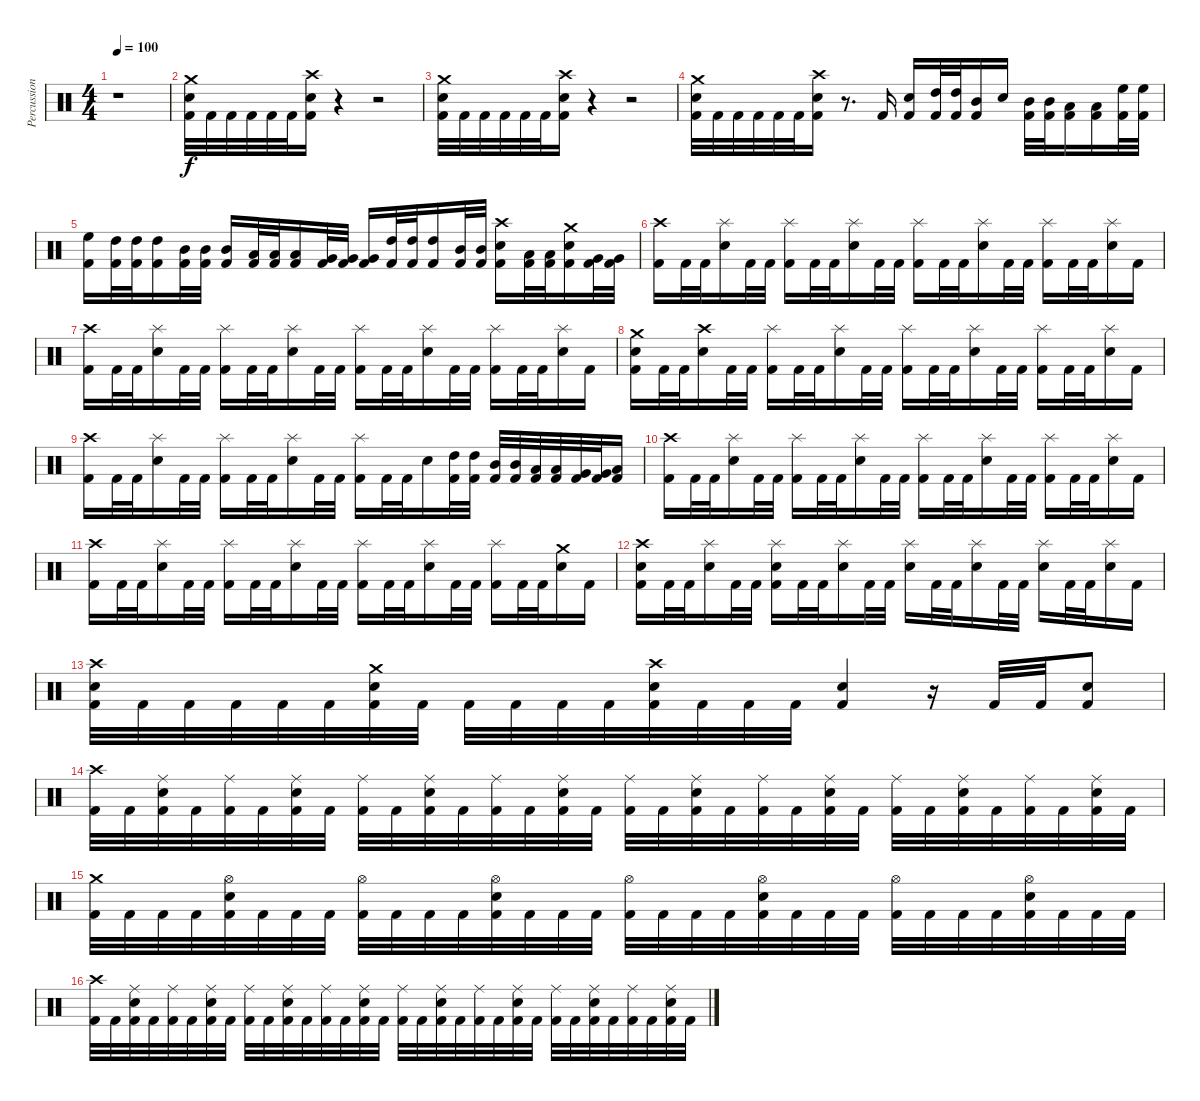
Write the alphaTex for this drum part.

\track ("Percussion" "Percussion") {instrument percussion}
\staff {score}
\articulation defaults
\ts (4 4)
\tempo 100
\clef neutral
\ks c
r.1{dy f} |
("Crash medium (hit)" "Electric Snare (hit)" "Kick (hit) 2").32 "Kick (hit) 2".32 "Kick (hit) 2".32 "Kick (hit) 2".32 "Kick (hit) 2".32 "Kick (hit) 2".32 ("Crash high (hit)" "Electric Snare (hit)" "Kick (hit) 2").16 r.4 r.2 |
("Crash medium (hit)" "Electric Snare (hit)" "Kick (hit) 2").32 "Kick (hit) 2".32 "Kick (hit) 2".32 "Kick (hit) 2".32 "Kick (hit) 2".32 "Kick (hit) 2".32 ("Crash high (hit)" "Electric Snare (hit)" "Kick (hit) 2").16 r.4 r.2 |
("Crash medium (hit)" "Electric Snare (hit)" "Kick (hit) 2").32 "Kick (hit) 2".32 "Kick (hit) 2".32 "Kick (hit) 2".32 "Kick (hit) 2".32 "Kick (hit) 2".32 ("Crash high (hit)" "Electric Snare (hit)" "Kick (hit) 2").16 r.8{d} "Kick (hit) 2".16 ("Electric Snare (hit)" "Kick (hit) 2").16 ("High Tom (hit)" "Kick (hit) 2").32 ("High Tom (hit)" "Kick (hit) 2").32 ("Mid Tom (hit)" "Kick (hit) 2").16 "Electric Snare (hit)".16 ("Mid Tom (hit)" "Kick (hit) 2").32 ("Mid Tom (hit)" "Kick (hit) 2").32 ("Low Tom (hit)" "Kick (hit) 2").16 ("Low Tom (hit)" "Kick (hit) 2").16 ("High Floor Tom (hit)" "Kick (hit) 2").32 ("High Floor Tom (hit)" "Kick (hit) 2").32 |
("High Floor Tom (hit)" "Kick (hit) 2").16 ("High Tom (hit)" "Kick (hit) 2").32 ("High Tom (hit)" "Kick (hit) 2").32 ("High Tom (hit)" "Kick (hit) 2").16 ("Mid Tom (hit)" "Kick (hit) 2").32 ("Mid Tom (hit)" "Kick (hit) 2").32 ("Mid Tom (hit)" "Kick (hit) 2").16 ("Low Tom (hit)" "Kick (hit) 2").32 ("Low Tom (hit)" "Kick (hit) 2").32 ("Low Tom (hit)" "Kick (hit) 2").16 ("Very Low Tom (hit)" "Kick (hit) 2").32 ("Very Low Tom (hit)" "Kick (hit) 2").32 ("Very Low Tom (hit)" "Kick (hit) 2").16 ("High Tom (hit)" "Kick (hit) 2").32 ("High Tom (hit)" "Kick (hit) 2").32 ("High Tom (hit)" "Kick (hit) 2").16 ("Mid Tom (hit)" "Kick (hit) 2").32 ("Mid Tom (hit)" "Kick (hit) 2").32 ("Crash high (hit)" "Electric Snare (hit)" "Kick (hit) 2").16 ("Low Tom (hit)" "Kick (hit) 2").32 ("Low Tom (hit)" "Kick (hit) 2").32 ("Crash medium (hit)" "Electric Snare (hit)" "Kick (hit) 2").16 ("Very Low Tom (hit)" "Kick (hit) 2").32 ("Very Low Tom (hit)" "Kick (hit) 2").32 |
("Crash high (hit)" "Kick (hit) 2").16 "Kick (hit) 2".32 "Kick (hit) 2".32 ("Splash (hit)" "Electric Snare (hit)").16 "Kick (hit) 2".32 "Kick (hit) 2".32 ("Splash (hit)" "Kick (hit) 2").16 "Kick (hit) 2".32 "Kick (hit) 2".32 ("Splash (hit)" "Electric Snare (hit)").16 "Kick (hit) 2".32 "Kick (hit) 2".32 ("Splash (hit)" "Kick (hit) 2").16 "Kick (hit) 2".32 "Kick (hit) 2".32 ("Splash (hit)" "Electric Snare (hit)").16 "Kick (hit) 2".32 "Kick (hit) 2".32 ("Splash (hit)" "Kick (hit) 2").16 "Kick (hit) 2".32 "Kick (hit) 2".32 ("Splash (hit)" "Electric Snare (hit)").16 "Kick (hit) 2".16 |
("Crash high (hit)" "Kick (hit) 2").16 "Kick (hit) 2".32 "Kick (hit) 2".32 ("Splash (hit)" "Electric Snare (hit)").16 "Kick (hit) 2".32 "Kick (hit) 2".32 ("Splash (hit)" "Kick (hit) 2").16 "Kick (hit) 2".32 "Kick (hit) 2".32 ("Splash (hit)" "Electric Snare (hit)").16 "Kick (hit) 2".32 "Kick (hit) 2".32 ("Splash (hit)" "Kick (hit) 2").16 "Kick (hit) 2".32 "Kick (hit) 2".32 ("Splash (hit)" "Electric Snare (hit)").16 "Kick (hit) 2".32 "Kick (hit) 2".32 ("Splash (hit)" "Kick (hit) 2").16 "Kick (hit) 2".32 "Kick (hit) 2".32 ("Splash (hit)" "Electric Snare (hit)").16 "Kick (hit) 2".16 |
("Crash medium (hit)" "Electric Snare (hit)" "Kick (hit) 2").16 "Kick (hit) 2".32 "Kick (hit) 2".32 ("Crash high (hit)" "Electric Snare (hit)").16 "Kick (hit) 2".32 "Kick (hit) 2".32 ("Splash (hit)" "Kick (hit) 2").16 "Kick (hit) 2".32 "Kick (hit) 2".32 ("Splash (hit)" "Electric Snare (hit)").16 "Kick (hit) 2".32 "Kick (hit) 2".32 ("Splash (hit)" "Kick (hit) 2").16 "Kick (hit) 2".32 "Kick (hit) 2".32 ("Splash (hit)" "Electric Snare (hit)").16 "Kick (hit) 2".32 "Kick (hit) 2".32 ("Splash (hit)" "Kick (hit) 2").16 "Kick (hit) 2".32 "Kick (hit) 2".32 ("Splash (hit)" "Electric Snare (hit)").16 "Kick (hit) 2".16 |
("Crash high (hit)" "Kick (hit) 2").16 "Kick (hit) 2".32 "Kick (hit) 2".32 ("Splash (hit)" "Electric Snare (hit)").16 "Kick (hit) 2".32 "Kick (hit) 2".32 ("Splash (hit)" "Kick (hit) 2").16 "Kick (hit) 2".32 "Kick (hit) 2".32 ("Splash (hit)" "Electric Snare (hit)").16 "Kick (hit) 2".32 "Kick (hit) 2".32 ("Splash (hit)" "Kick (hit) 2").16 "Kick (hit) 2".32 "Kick (hit) 2".32 "Electric Snare (hit)".16 ("High Tom (hit)" "Kick (hit) 2").32 ("High Tom (hit)" "Kick (hit) 2").32 ("Mid Tom (hit)" "Kick (hit) 2").32 ("Mid Tom (hit)" "Kick (hit) 2").32 ("Low Tom (hit)" "Kick (hit) 2").32 ("Low Tom (hit)" "Kick (hit) 2").32 ("Very Low Tom (hit)" "Kick (hit) 2").32 ("Very Low Tom (hit)" "Kick (hit) 2").32 ("Low Floor Tom (hit)" "Kick (hit) 2").16 |
("Crash high (hit)" "Kick (hit) 2").16 "Kick (hit) 2".32 "Kick (hit) 2".32 ("Splash (hit)" "Electric Snare (hit)").16 "Kick (hit) 2".32 "Kick (hit) 2".32 ("Splash (hit)" "Kick (hit) 2").16 "Kick (hit) 2".32 "Kick (hit) 2".32 ("Splash (hit)" "Electric Snare (hit)").16 "Kick (hit) 2".32 "Kick (hit) 2".32 ("Splash (hit)" "Kick (hit) 2").16 "Kick (hit) 2".32 "Kick (hit) 2".32 ("Splash (hit)" "Electric Snare (hit)").16 "Kick (hit) 2".32 "Kick (hit) 2".32 ("Splash (hit)" "Kick (hit) 2").16 "Kick (hit) 2".32 "Kick (hit) 2".32 ("Splash (hit)" "Electric Snare (hit)").16 "Kick (hit) 2".16 |
("Crash high (hit)" "Kick (hit) 2").16 "Kick (hit) 2".32 "Kick (hit) 2".32 ("Splash (hit)" "Electric Snare (hit)").16 "Kick (hit) 2".32 "Kick (hit) 2".32 ("Splash (hit)" "Kick (hit) 2").16 "Kick (hit) 2".32 "Kick (hit) 2".32 ("Splash (hit)" "Electric Snare (hit)").16 "Kick (hit) 2".32 "Kick (hit) 2".32 ("Splash (hit)" "Kick (hit) 2").16 "Kick (hit) 2".32 "Kick (hit) 2".32 ("Splash (hit)" "Electric Snare (hit)").16 "Kick (hit) 2".32 "Kick (hit) 2".32 ("Splash (hit)" "Kick (hit) 2").16 "Kick (hit) 2".32 "Kick (hit) 2".32 ("Crash medium (hit)" "Electric Snare (hit)").16 "Kick (hit) 2".16 |
("Crash high (hit)" "Electric Snare (hit)" "Kick (hit) 2").16 "Kick (hit) 2".32 "Kick (hit) 2".32 ("Splash (hit)" "Electric Snare (hit)").16 "Kick (hit) 2".32 "Kick (hit) 2".32 ("Splash (hit)" "Electric Snare (hit)" "Kick (hit) 2").16 "Kick (hit) 2".32 "Kick (hit) 2".32 ("Splash (hit)" "Electric Snare (hit)").16 "Kick (hit) 2".32 "Kick (hit) 2".32 ("Splash (hit)" "Electric Snare (hit)").16 "Kick (hit) 2".32 "Kick (hit) 2".32 ("Splash (hit)" "Electric Snare (hit)").16 "Kick (hit) 2".32 "Kick (hit) 2".32 ("Splash (hit)" "Electric Snare (hit)").16 "Kick (hit) 2".32 "Kick (hit) 2".32 ("Splash (hit)" "Electric Snare (hit)").16 "Kick (hit) 2".16 |
("Crash high (hit)" "Electric Snare (hit)" "Kick (hit) 2").32 "Kick (hit) 2".32 "Kick (hit) 2".32 "Kick (hit) 2".32 "Kick (hit) 2".32 "Kick (hit) 2".32 ("Crash medium (hit)" "Electric Snare (hit)" "Kick (hit) 2").32 "Kick (hit) 2".32 "Kick (hit) 2".32 "Kick (hit) 2".32 "Kick (hit) 2".32 "Kick (hit) 2".32 ("Crash high (hit)" "Electric Snare (hit)" "Kick (hit) 2").32 "Kick (hit) 2".32 "Kick (hit) 2".32 "Kick (hit) 2".32 ("Electric Snare (hit)" "Kick (hit) 2").4 r.16 "Kick (hit) 2".32 "Kick (hit) 2".32 ("Electric Snare (hit)" "Kick (hit) 2").8 |
("Crash high (hit)" "Kick (hit) 2").32 "Kick (hit) 2".32 ("Ride (middle)" "Electric Snare (hit)" "Kick (hit) 2").32 "Kick (hit) 2".32 ("Ride (middle)" "Kick (hit) 2").32 "Kick (hit) 2".32 ("Ride (middle)" "Electric Snare (hit)" "Kick (hit) 2").32 "Kick (hit) 2".32 ("Ride (middle)" "Kick (hit) 2").32 "Kick (hit) 2".32 ("Ride (middle)" "Electric Snare (hit)" "Kick (hit) 2").32 "Kick (hit) 2".32 ("Ride (middle)" "Kick (hit) 2").32 "Kick (hit) 2".32 ("Ride (middle)" "Electric Snare (hit)" "Kick (hit) 2").32 "Kick (hit) 2".32 ("Ride (middle)" "Kick (hit) 2").32 "Kick (hit) 2".32 ("Ride (middle)" "Electric Snare (hit)" "Kick (hit) 2").32 "Kick (hit) 2".32 ("Ride (middle)" "Kick (hit) 2").32 "Kick (hit) 2".32 ("Ride (middle)" "Electric Snare (hit)" "Kick (hit) 2").32 "Kick (hit) 2".32 ("Ride (middle)" "Kick (hit) 2").32 "Kick (hit) 2".32 ("Ride (middle)" "Electric Snare (hit)" "Kick (hit) 2").32 "Kick (hit) 2".32 ("Ride (middle)" "Kick (hit) 2").32 "Kick (hit) 2".32 ("Ride (middle)" "Electric Snare (hit)" "Kick (hit) 2").32 "Kick (hit) 2".32 |
("Crash medium (hit)" "Kick (hit) 2").32 "Kick (hit) 2".32 "Kick (hit) 2".32 "Kick (hit) 2".32 ("Hi-Hat (open)" "Electric Snare (hit)" "Kick (hit) 2").32 "Kick (hit) 2".32 "Kick (hit) 2".32 "Kick (hit) 2".32 ("Hi-Hat (open)" "Kick (hit) 2").32 "Kick (hit) 2".32 "Kick (hit) 2".32 "Kick (hit) 2".32 ("Hi-Hat (open)" "Electric Snare (hit)" "Kick (hit) 2").32 "Kick (hit) 2".32 "Kick (hit) 2".32 "Kick (hit) 2".32 ("Hi-Hat (open)" "Kick (hit) 2").32 "Kick (hit) 2".32 "Kick (hit) 2".32 "Kick (hit) 2".32 ("Hi-Hat (open)" "Electric Snare (hit)" "Kick (hit) 2").32 "Kick (hit) 2".32 "Kick (hit) 2".32 "Kick (hit) 2".32 ("Hi-Hat (open)" "Kick (hit) 2").32 "Kick (hit) 2".32 "Kick (hit) 2".32 "Kick (hit) 2".32 ("Hi-Hat (open)" "Electric Snare (hit)" "Kick (hit) 2").32 "Kick (hit) 2".32 "Kick (hit) 2".32 "Kick (hit) 2".32 |
("Crash high (hit)" "Kick (hit) 2").32 "Kick (hit) 2".32 ("Ride (middle)" "Electric Snare (hit)" "Kick (hit) 2").32 "Kick (hit) 2".32 ("Ride (middle)" "Kick (hit) 2").32 "Kick (hit) 2".32 ("Ride (middle)" "Electric Snare (hit)" "Kick (hit) 2").32 "Kick (hit) 2".32 ("Ride (middle)" "Kick (hit) 2").32 "Kick (hit) 2".32 ("Ride (middle)" "Electric Snare (hit)" "Kick (hit) 2").32 "Kick (hit) 2".32 ("Ride (middle)" "Kick (hit) 2").32 "Kick (hit) 2".32 ("Ride (middle)" "Electric Snare (hit)" "Kick (hit) 2").32 "Kick (hit) 2".32 ("Ride (middle)" "Kick (hit) 2").32 "Kick (hit) 2".32 ("Ride (middle)" "Electric Snare (hit)" "Kick (hit) 2").32 "Kick (hit) 2".32 ("Ride (middle)" "Kick (hit) 2").32 "Kick (hit) 2".32 ("Ride (middle)" "Electric Snare (hit)" "Kick (hit) 2").32 "Kick (hit) 2".32 ("Ride (middle)" "Kick (hit) 2").32 "Kick (hit) 2".32 ("Ride (middle)" "Electric Snare (hit)" "Kick (hit) 2").32 "Kick (hit) 2".32 ("Ride (middle)" "Kick (hit) 2").32 "Kick (hit) 2".32 ("Ride (middle)" "Electric Snare (hit)" "Kick (hit) 2").32 "Kick (hit) 2".32
